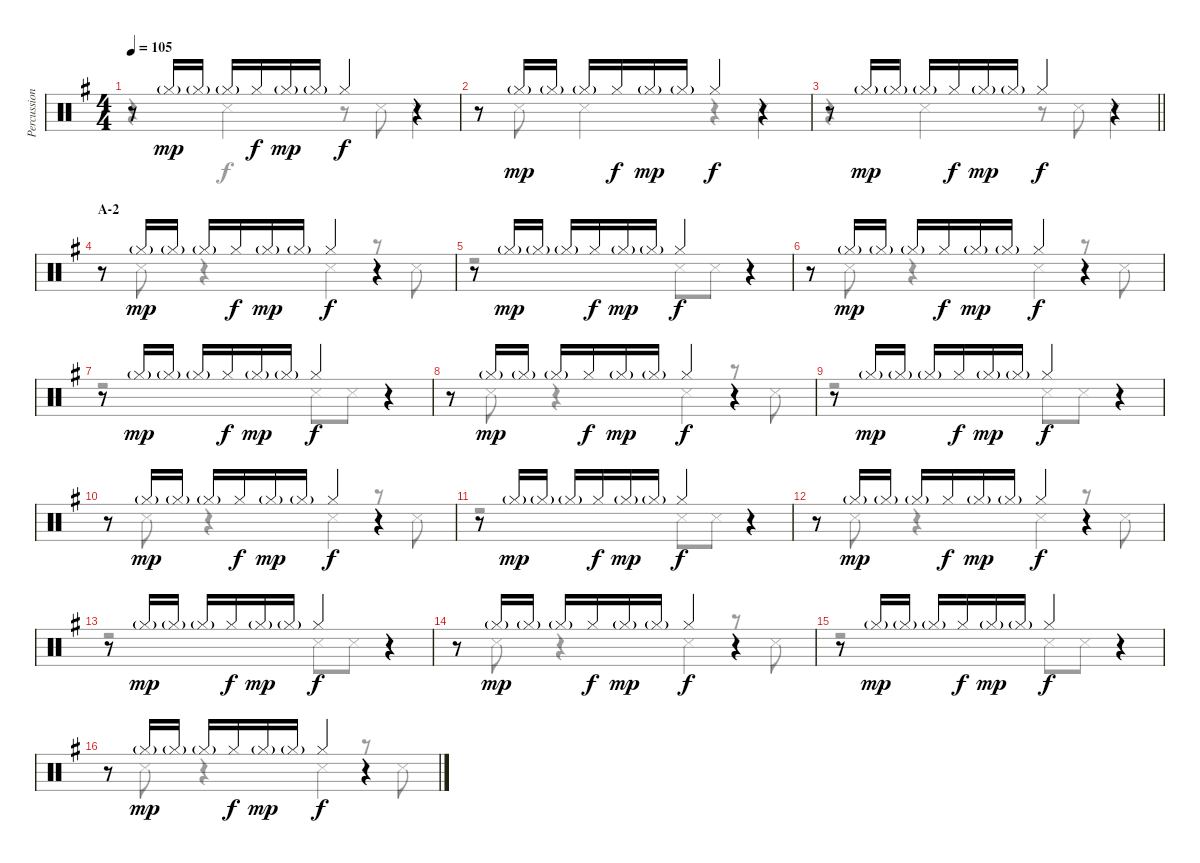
\track ("Percussion" "Percussion") {instrument percussion}
\staff {score}
\articulation defaults
\voice
\ts (4 4)
\tempo 105
\clef neutral
\ks g
r.8{dy f} "Hi-Hat (closed)"{g}.16{dy mp} "Hi-Hat (closed)"{g}.16 "Hi-Hat (closed)"{g}.16 "Hi-Hat (closed)".16{dy f} "Hi-Hat (closed)"{g}.16{dy mp} "Hi-Hat (closed)"{g}.16 "Hi-Hat (closed)".4{dy f} r.4 |
r.8 "Hi-Hat (closed)"{g}.16{dy mp} "Hi-Hat (closed)"{g}.16 "Hi-Hat (closed)"{g}.16 "Hi-Hat (closed)".16{dy f} "Hi-Hat (closed)"{g}.16{dy mp} "Hi-Hat (closed)"{g}.16 "Hi-Hat (closed)".4{dy f} r.4 |
\barLineRight lightlight
r.8 "Hi-Hat (closed)"{g}.16{dy mp} "Hi-Hat (closed)"{g}.16 "Hi-Hat (closed)"{g}.16 "Hi-Hat (closed)".16{dy f} "Hi-Hat (closed)"{g}.16{dy mp} "Hi-Hat (closed)"{g}.16 "Hi-Hat (closed)".4{dy f} r.4 |
\section ("" "A-2")
r.8 "Hi-Hat (closed)"{g}.16{dy mp} "Hi-Hat (closed)"{g}.16 "Hi-Hat (closed)"{g}.16 "Hi-Hat (closed)".16{dy f} "Hi-Hat (closed)"{g}.16{dy mp} "Hi-Hat (closed)"{g}.16 "Hi-Hat (closed)".4{dy f} r.4 |
r.8 "Hi-Hat (closed)"{g}.16{dy mp} "Hi-Hat (closed)"{g}.16 "Hi-Hat (closed)"{g}.16 "Hi-Hat (closed)".16{dy f} "Hi-Hat (closed)"{g}.16{dy mp} "Hi-Hat (closed)"{g}.16 "Hi-Hat (closed)".4{dy f} r.4 |
r.8 "Hi-Hat (closed)"{g}.16{dy mp} "Hi-Hat (closed)"{g}.16 "Hi-Hat (closed)"{g}.16 "Hi-Hat (closed)".16{dy f} "Hi-Hat (closed)"{g}.16{dy mp} "Hi-Hat (closed)"{g}.16 "Hi-Hat (closed)".4{dy f} r.4 |
r.8 "Hi-Hat (closed)"{g}.16{dy mp} "Hi-Hat (closed)"{g}.16 "Hi-Hat (closed)"{g}.16 "Hi-Hat (closed)".16{dy f} "Hi-Hat (closed)"{g}.16{dy mp} "Hi-Hat (closed)"{g}.16 "Hi-Hat (closed)".4{dy f} r.4 |
r.8 "Hi-Hat (closed)"{g}.16{dy mp} "Hi-Hat (closed)"{g}.16 "Hi-Hat (closed)"{g}.16 "Hi-Hat (closed)".16{dy f} "Hi-Hat (closed)"{g}.16{dy mp} "Hi-Hat (closed)"{g}.16 "Hi-Hat (closed)".4{dy f} r.4 |
r.8 "Hi-Hat (closed)"{g}.16{dy mp} "Hi-Hat (closed)"{g}.16 "Hi-Hat (closed)"{g}.16 "Hi-Hat (closed)".16{dy f} "Hi-Hat (closed)"{g}.16{dy mp} "Hi-Hat (closed)"{g}.16 "Hi-Hat (closed)".4{dy f} r.4 |
r.8 "Hi-Hat (closed)"{g}.16{dy mp} "Hi-Hat (closed)"{g}.16 "Hi-Hat (closed)"{g}.16 "Hi-Hat (closed)".16{dy f} "Hi-Hat (closed)"{g}.16{dy mp} "Hi-Hat (closed)"{g}.16 "Hi-Hat (closed)".4{dy f} r.4 |
r.8 "Hi-Hat (closed)"{g}.16{dy mp} "Hi-Hat (closed)"{g}.16 "Hi-Hat (closed)"{g}.16 "Hi-Hat (closed)".16{dy f} "Hi-Hat (closed)"{g}.16{dy mp} "Hi-Hat (closed)"{g}.16 "Hi-Hat (closed)".4{dy f} r.4 |
r.8 "Hi-Hat (closed)"{g}.16{dy mp} "Hi-Hat (closed)"{g}.16 "Hi-Hat (closed)"{g}.16 "Hi-Hat (closed)".16{dy f} "Hi-Hat (closed)"{g}.16{dy mp} "Hi-Hat (closed)"{g}.16 "Hi-Hat (closed)".4{dy f} r.4 |
r.8 "Hi-Hat (closed)"{g}.16{dy mp} "Hi-Hat (closed)"{g}.16 "Hi-Hat (closed)"{g}.16 "Hi-Hat (closed)".16{dy f} "Hi-Hat (closed)"{g}.16{dy mp} "Hi-Hat (closed)"{g}.16 "Hi-Hat (closed)".4{dy f} r.4 |
r.8 "Hi-Hat (closed)"{g}.16{dy mp} "Hi-Hat (closed)"{g}.16 "Hi-Hat (closed)"{g}.16 "Hi-Hat (closed)".16{dy f} "Hi-Hat (closed)"{g}.16{dy mp} "Hi-Hat (closed)"{g}.16 "Hi-Hat (closed)".4{dy f} r.4 |
r.8 "Hi-Hat (closed)"{g}.16{dy mp} "Hi-Hat (closed)"{g}.16 "Hi-Hat (closed)"{g}.16 "Hi-Hat (closed)".16{dy f} "Hi-Hat (closed)"{g}.16{dy mp} "Hi-Hat (closed)"{g}.16 "Hi-Hat (closed)".4{dy f} r.4 |
r.8 "Hi-Hat (closed)"{g}.16{dy mp} "Hi-Hat (closed)"{g}.16 "Hi-Hat (closed)"{g}.16 "Hi-Hat (closed)".16{dy f} "Hi-Hat (closed)"{g}.16{dy mp} "Hi-Hat (closed)"{g}.16 "Hi-Hat (closed)".4{dy f} r.4
\voice
\clef neutral
\ottava regular
\simile none
\ks g
r.4{dy f} "Snare (side stick) 3".4 r.8 "Snare (side stick) 3".8 "Snare (side stick) 3".4 |
r.8 "Snare (side stick) 3".8 "Snare (side stick) 3".4 r.4 "Snare (side stick) 3".4 |
\barLineRight lightlight
r.4 "Snare (side stick) 3".4 r.8 "Snare (side stick) 3".8 "Snare (side stick) 3".4 |
r.8 "Snare (side stick) 3".8 r.4 "Snare (side stick) 3".4 r.8 "Snare (side stick) 3".8 |
r.2 "Snare (side stick) 3".8 "Snare (side stick) 3".8 r.4 |
r.8 "Snare (side stick) 3".8 r.4 "Snare (side stick) 3".4 r.8 "Snare (side stick) 3".8 |
r.2 "Snare (side stick) 3".8 "Snare (side stick) 3".8 r.4 |
r.8 "Snare (side stick) 3".8 r.4 "Snare (side stick) 3".4 r.8 "Snare (side stick) 3".8 |
r.2 "Snare (side stick) 3".8 "Snare (side stick) 3".8 r.4 |
r.8 "Snare (side stick) 3".8 r.4 "Snare (side stick) 3".4 r.8 "Snare (side stick) 3".8 |
r.2 "Snare (side stick) 3".8 "Snare (side stick) 3".8 r.4 |
r.8 "Snare (side stick) 3".8 r.4 "Snare (side stick) 3".4 r.8 "Snare (side stick) 3".8 |
r.2 "Snare (side stick) 3".8 "Snare (side stick) 3".8 r.4 |
r.8 "Snare (side stick) 3".8 r.4 "Snare (side stick) 3".4 r.8 "Snare (side stick) 3".8 |
r.2 "Snare (side stick) 3".8 "Snare (side stick) 3".8 r.4 |
r.8 "Snare (side stick) 3".8 r.4 "Snare (side stick) 3".4 r.8 "Snare (side stick) 3".8
